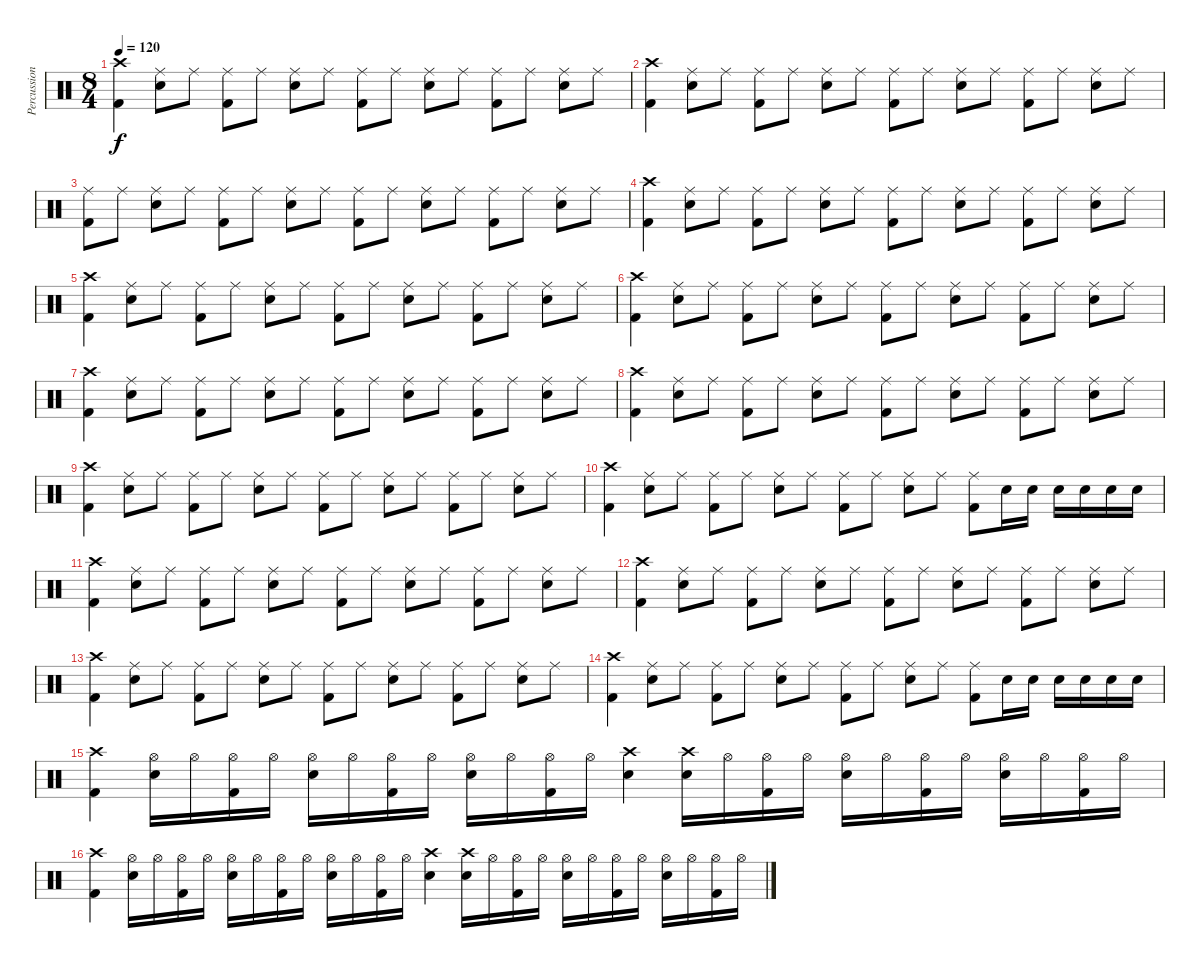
\track ("Percussion" "Percussion") {instrument percussion}
\staff {score}
\articulation defaults
\ts (8 4)
\tempo 120
\clef neutral
\ks c
("Kick (hit) 2" "Crash high (hit)").4{dy f} ("Snare (hit) 2" "Ride (middle)").8 "Ride (middle)".8 ("Kick (hit) 2" "Ride (middle)").8 "Ride (middle)".8 ("Snare (hit) 2" "Ride (middle)").8 "Ride (middle)".8 ("Kick (hit) 2" "Ride (middle)").8 "Ride (middle)".8 ("Snare (hit) 2" "Ride (middle)").8 "Ride (middle)".8 ("Kick (hit) 2" "Ride (middle)").8 "Ride (middle)".8 ("Snare (hit) 2" "Ride (middle)").8 "Ride (middle)".8 |
("Kick (hit) 2" "Crash high (hit)").4 ("Snare (hit) 2" "Ride (middle)").8 "Ride (middle)".8 ("Kick (hit) 2" "Ride (middle)").8 "Ride (middle)".8 ("Snare (hit) 2" "Ride (middle)").8 "Ride (middle)".8 ("Kick (hit) 2" "Ride (middle)").8 "Ride (middle)".8 ("Snare (hit) 2" "Ride (middle)").8 "Ride (middle)".8 ("Kick (hit) 2" "Ride (middle)").8 "Ride (middle)".8 ("Snare (hit) 2" "Ride (middle)").8 "Ride (middle)".8 |
("Kick (hit) 2" "Ride (middle)").8 "Ride (middle)".8 ("Snare (hit) 2" "Ride (middle)").8 "Ride (middle)".8 ("Kick (hit) 2" "Ride (middle)").8 "Ride (middle)".8 ("Snare (hit) 2" "Ride (middle)").8 "Ride (middle)".8 ("Kick (hit) 2" "Ride (middle)").8 "Ride (middle)".8 ("Snare (hit) 2" "Ride (middle)").8 "Ride (middle)".8 ("Kick (hit) 2" "Ride (middle)").8 "Ride (middle)".8 ("Snare (hit) 2" "Ride (middle)").8 "Ride (middle)".8 |
("Kick (hit) 2" "Crash high (hit)").4 ("Snare (hit) 2" "Ride (middle)").8 "Ride (middle)".8 ("Kick (hit) 2" "Ride (middle)").8 "Ride (middle)".8 ("Snare (hit) 2" "Ride (middle)").8 "Ride (middle)".8 ("Kick (hit) 2" "Ride (middle)").8 "Ride (middle)".8 ("Snare (hit) 2" "Ride (middle)").8 "Ride (middle)".8 ("Kick (hit) 2" "Ride (middle)").8 "Ride (middle)".8 ("Snare (hit) 2" "Ride (middle)").8 "Ride (middle)".8 |
("Kick (hit) 2" "Crash high (hit)").4 ("Snare (hit) 2" "Ride (middle)").8 "Ride (middle)".8 ("Kick (hit) 2" "Ride (middle)").8 "Ride (middle)".8 ("Snare (hit) 2" "Ride (middle)").8 "Ride (middle)".8 ("Kick (hit) 2" "Ride (middle)").8 "Ride (middle)".8 ("Snare (hit) 2" "Ride (middle)").8 "Ride (middle)".8 ("Kick (hit) 2" "Ride (middle)").8 "Ride (middle)".8 ("Snare (hit) 2" "Ride (middle)").8 "Ride (middle)".8 |
("Kick (hit) 2" "Crash high (hit)").4 ("Snare (hit) 2" "Ride (middle)").8 "Ride (middle)".8 ("Kick (hit) 2" "Ride (middle)").8 "Ride (middle)".8 ("Snare (hit) 2" "Ride (middle)").8 "Ride (middle)".8 ("Kick (hit) 2" "Ride (middle)").8 "Ride (middle)".8 ("Snare (hit) 2" "Ride (middle)").8 "Ride (middle)".8 ("Kick (hit) 2" "Ride (middle)").8 "Ride (middle)".8 ("Snare (hit) 2" "Ride (middle)").8 "Ride (middle)".8 |
("Kick (hit) 2" "Crash high (hit)").4 ("Snare (hit) 2" "Ride (middle)").8 "Ride (middle)".8 ("Kick (hit) 2" "Ride (middle)").8 "Ride (middle)".8 ("Snare (hit) 2" "Ride (middle)").8 "Ride (middle)".8 ("Kick (hit) 2" "Ride (middle)").8 "Ride (middle)".8 ("Snare (hit) 2" "Ride (middle)").8 "Ride (middle)".8 ("Kick (hit) 2" "Ride (middle)").8 "Ride (middle)".8 ("Snare (hit) 2" "Ride (middle)").8 "Ride (middle)".8 |
("Kick (hit) 2" "Crash high (hit)").4 ("Snare (hit) 2" "Ride (middle)").8 "Ride (middle)".8 ("Kick (hit) 2" "Ride (middle)").8 "Ride (middle)".8 ("Snare (hit) 2" "Ride (middle)").8 "Ride (middle)".8 ("Kick (hit) 2" "Ride (middle)").8 "Ride (middle)".8 ("Snare (hit) 2" "Ride (middle)").8 "Ride (middle)".8 ("Kick (hit) 2" "Ride (middle)").8 "Ride (middle)".8 ("Snare (hit) 2" "Ride (middle)").8 "Ride (middle)".8 |
("Kick (hit) 2" "Crash high (hit)").4 ("Snare (hit) 2" "Ride (middle)").8 "Ride (middle)".8 ("Kick (hit) 2" "Ride (middle)").8 "Ride (middle)".8 ("Snare (hit) 2" "Ride (middle)").8 "Ride (middle)".8 ("Kick (hit) 2" "Ride (middle)").8 "Ride (middle)".8 ("Snare (hit) 2" "Ride (middle)").8 "Ride (middle)".8 ("Kick (hit) 2" "Ride (middle)").8 "Ride (middle)".8 ("Snare (hit) 2" "Ride (middle)").8 "Ride (middle)".8 |
("Kick (hit) 2" "Crash high (hit)").4 ("Snare (hit) 2" "Ride (middle)").8 "Ride (middle)".8 ("Kick (hit) 2" "Ride (middle)").8 "Ride (middle)".8 ("Snare (hit) 2" "Ride (middle)").8 "Ride (middle)".8 ("Kick (hit) 2" "Ride (middle)").8 "Ride (middle)".8 ("Snare (hit) 2" "Ride (middle)").8 "Ride (middle)".8 ("Kick (hit) 2" "Ride (middle)").8 "Snare (hit) 2".16 "Snare (hit) 2".16 "Snare (hit) 2".16 "Snare (hit) 2".16 "Snare (hit) 2".16 "Snare (hit) 2".16 |
("Kick (hit) 2" "Crash high (hit)").4 ("Snare (hit) 2" "Ride (middle)").8 "Ride (middle)".8 ("Kick (hit) 2" "Ride (middle)").8 "Ride (middle)".8 ("Snare (hit) 2" "Ride (middle)").8 "Ride (middle)".8 ("Kick (hit) 2" "Ride (middle)").8 "Ride (middle)".8 ("Snare (hit) 2" "Ride (middle)").8 "Ride (middle)".8 ("Kick (hit) 2" "Ride (middle)").8 "Ride (middle)".8 ("Snare (hit) 2" "Ride (middle)").8 "Ride (middle)".8 |
("Kick (hit) 2" "Crash high (hit)").4 ("Snare (hit) 2" "Ride (middle)").8 "Ride (middle)".8 ("Kick (hit) 2" "Ride (middle)").8 "Ride (middle)".8 ("Snare (hit) 2" "Ride (middle)").8 "Ride (middle)".8 ("Kick (hit) 2" "Ride (middle)").8 "Ride (middle)".8 ("Snare (hit) 2" "Ride (middle)").8 "Ride (middle)".8 ("Kick (hit) 2" "Ride (middle)").8 "Ride (middle)".8 ("Snare (hit) 2" "Ride (middle)").8 "Ride (middle)".8 |
("Kick (hit) 2" "Crash high (hit)").4 ("Snare (hit) 2" "Ride (middle)").8 "Ride (middle)".8 ("Kick (hit) 2" "Ride (middle)").8 "Ride (middle)".8 ("Snare (hit) 2" "Ride (middle)").8 "Ride (middle)".8 ("Kick (hit) 2" "Ride (middle)").8 "Ride (middle)".8 ("Snare (hit) 2" "Ride (middle)").8 "Ride (middle)".8 ("Kick (hit) 2" "Ride (middle)").8 "Ride (middle)".8 ("Snare (hit) 2" "Ride (middle)").8 "Ride (middle)".8 |
("Kick (hit) 2" "Crash high (hit)").4 ("Snare (hit) 2" "Ride (middle)").8 "Ride (middle)".8 ("Kick (hit) 2" "Ride (middle)").8 "Ride (middle)".8 ("Snare (hit) 2" "Ride (middle)").8 "Ride (middle)".8 ("Kick (hit) 2" "Ride (middle)").8 "Ride (middle)".8 ("Snare (hit) 2" "Ride (middle)").8 "Ride (middle)".8 ("Kick (hit) 2" "Ride (middle)").8 "Snare (hit) 2".16 "Snare (hit) 2".16 "Snare (hit) 2".16 "Snare (hit) 2".16 "Snare (hit) 2".16 "Snare (hit) 2".16 |
("Kick (hit) 2" "Crash high (hit)").4 ("Snare (hit) 2" "Hi-Hat (open)").16 "Hi-Hat (open)".16 ("Kick (hit) 2" "Hi-Hat (open)").16 "Hi-Hat (open)".16 ("Snare (hit) 2" "Hi-Hat (open)").16 "Hi-Hat (open)".16 ("Kick (hit) 2" "Hi-Hat (open)").16 "Hi-Hat (open)".16 ("Snare (hit) 2" "Hi-Hat (open)").16 "Hi-Hat (open)".16 ("Kick (hit) 2" "Hi-Hat (open)").16 "Hi-Hat (open)".16 ("Snare (hit) 2" "Crash high (hit)").4 ("Snare (hit) 2" "Crash high (hit)").16 "Hi-Hat (open)".16 ("Kick (hit) 2" "Hi-Hat (open)").16 "Hi-Hat (open)".16 ("Snare (hit) 2" "Hi-Hat (open)").16 "Hi-Hat (open)".16 ("Kick (hit) 2" "Hi-Hat (open)").16 "Hi-Hat (open)".16 ("Snare (hit) 2" "Hi-Hat (open)").16 "Hi-Hat (open)".16 ("Kick (hit) 2" "Hi-Hat (open)").16 "Hi-Hat (open)".16 |
("Kick (hit) 2" "Crash high (hit)").4 ("Snare (hit) 2" "Hi-Hat (open)").16 "Hi-Hat (open)".16 ("Kick (hit) 2" "Hi-Hat (open)").16 "Hi-Hat (open)".16 ("Snare (hit) 2" "Hi-Hat (open)").16 "Hi-Hat (open)".16 ("Kick (hit) 2" "Hi-Hat (open)").16 "Hi-Hat (open)".16 ("Snare (hit) 2" "Hi-Hat (open)").16 "Hi-Hat (open)".16 ("Kick (hit) 2" "Hi-Hat (open)").16 "Hi-Hat (open)".16 ("Snare (hit) 2" "Crash high (hit)").4 ("Snare (hit) 2" "Crash high (hit)").16 "Hi-Hat (open)".16 ("Kick (hit) 2" "Hi-Hat (open)").16 "Hi-Hat (open)".16 ("Snare (hit) 2" "Hi-Hat (open)").16 "Hi-Hat (open)".16 ("Kick (hit) 2" "Hi-Hat (open)").16 "Hi-Hat (open)".16 ("Snare (hit) 2" "Hi-Hat (open)").16 "Hi-Hat (open)".16 ("Kick (hit) 2" "Hi-Hat (open)").16 "Hi-Hat (open)".16
